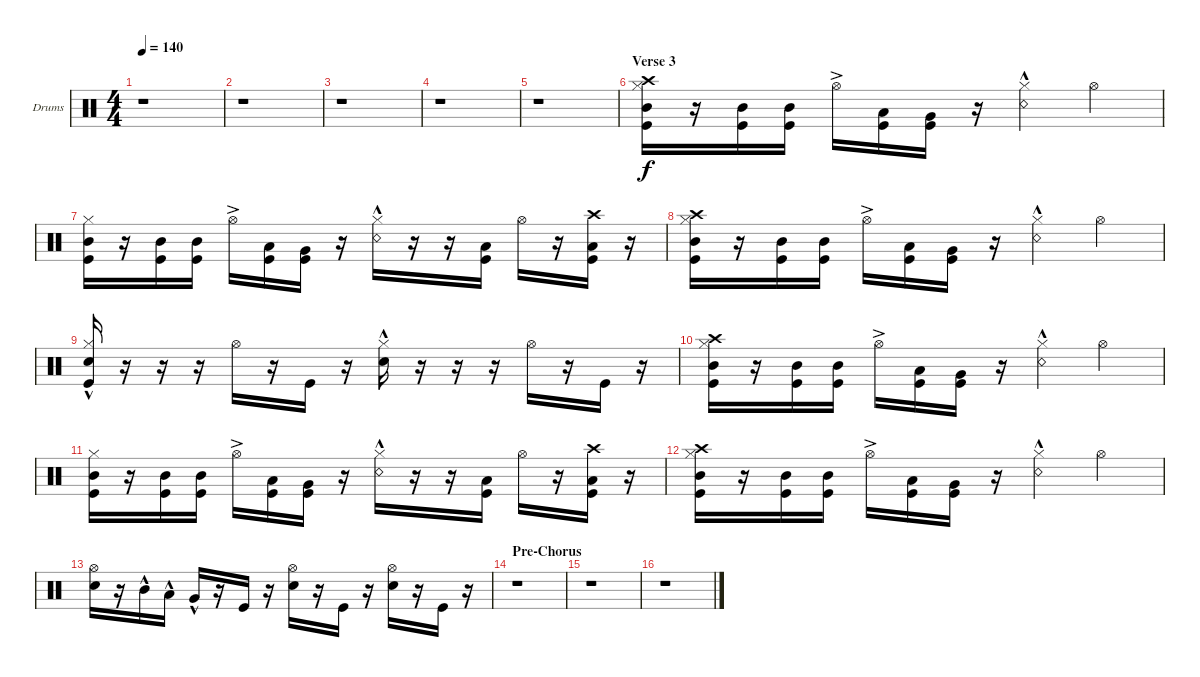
\defaultSystemsLayout 4
\bracketExtendMode groupsimilarinstruments
\firstSystemTrackNameOrientation horizontal
\otherSystemsTrackNameOrientation horizontal
\track ("Effects (Drums) - (Paul)" "Drums") {instrument percussion}
\staff {score}
\articulation defaults
\ts (4 4)
\tempo 140
\clef neutral
\ks c
r.1{dy ff} |
r.1 |
r.1 |
r.1 |
r.1 |
\section ("" "Verse 3")
("Mid Tom (hit)" "Kick (hit)" "Hi-Hat (closed)" "Crash high (hit)").16{dy f} r.16 ("Mid Tom (hit)" "Kick (hit)").16 ("Mid Tom (hit)" "Kick (hit)").16 "Hi-Hat (open)"{ac}.16 ("Low Tom (hit)" "Kick (hit)").16 ("Very Low Tom (hit)" "Kick (hit)").16 r.16 ("Snare (rim shot)"{hac} "Hi-Hat (closed)").4 "Hi-Hat (open)".4 |
("Mid Tom (hit)" "Kick (hit)" "Hi-Hat (closed)").16 r.16 ("Mid Tom (hit)" "Kick (hit)").16 ("Mid Tom (hit)" "Kick (hit)").16 "Hi-Hat (open)"{ac}.16 ("Low Tom (hit)" "Kick (hit)").16 ("Very Low Tom (hit)" "Kick (hit)").16 r.16 ("Snare (rim shot)"{hac} "Hi-Hat (closed)").16 r.16 r.16 ("Kick (hit)" "Low Tom (hit)").16 "Hi-Hat (open)".16 r.16 ("Kick (hit)" "Low Tom (hit)" "Crash high (hit)").16 r.16 |
("Mid Tom (hit)" "Kick (hit)" "Hi-Hat (closed)" "Crash high (hit)").16 r.16 ("Mid Tom (hit)" "Kick (hit)").16 ("Mid Tom (hit)" "Kick (hit)").16 "Hi-Hat (open)"{ac}.16 ("Low Tom (hit)" "Kick (hit)").16 ("Very Low Tom (hit)" "Kick (hit)").16 r.16 ("Snare (rim shot)"{hac} "Hi-Hat (closed)").4 "Hi-Hat (open)".4 |
("Hi-Hat (closed)" "Snare (hit) 2"{hac} "Kick (hit)").16 r.16 r.16 r.16 "Hi-Hat (open)".16 r.16 "Kick (hit)".16 r.16 ("Hi-Hat (closed)" "Snare (hit) 2"{hac}).16 r.16 r.16 r.16 "Hi-Hat (open)".16 r.16 "Kick (hit)".16 r.16 |
("Mid Tom (hit)" "Kick (hit)" "Hi-Hat (closed)" "Crash high (hit)").16 r.16 ("Mid Tom (hit)" "Kick (hit)").16 ("Mid Tom (hit)" "Kick (hit)").16 "Hi-Hat (open)"{ac}.16 ("Low Tom (hit)" "Kick (hit)").16 ("Very Low Tom (hit)" "Kick (hit)").16 r.16 ("Snare (rim shot)"{hac} "Hi-Hat (closed)").4 "Hi-Hat (open)".4 |
("Mid Tom (hit)" "Kick (hit)" "Hi-Hat (closed)").16 r.16 ("Mid Tom (hit)" "Kick (hit)").16 ("Mid Tom (hit)" "Kick (hit)").16 "Hi-Hat (open)"{ac}.16 ("Low Tom (hit)" "Kick (hit)").16 ("Very Low Tom (hit)" "Kick (hit)").16 r.16 ("Snare (rim shot)"{hac} "Hi-Hat (closed)").16 r.16 r.16 ("Kick (hit)" "Low Tom (hit)").16 "Hi-Hat (open)".16 r.16 ("Kick (hit)" "Low Tom (hit)" "Crash high (hit)").16 r.16 |
("Mid Tom (hit)" "Kick (hit)" "Hi-Hat (closed)" "Crash high (hit)").16 r.16 ("Mid Tom (hit)" "Kick (hit)").16 ("Mid Tom (hit)" "Kick (hit)").16 "Hi-Hat (open)"{ac}.16 ("Low Tom (hit)" "Kick (hit)").16 ("Very Low Tom (hit)" "Kick (hit)").16 r.16 ("Snare (rim shot)"{hac} "Hi-Hat (closed)").4 "Hi-Hat (open)".4 |
("Snare (hit) 2" "Hi-Hat (open)").16 r.16 "Mid Tom (hit)"{hac}.16 "Low Tom (hit)"{hac}.16 "Very Low Tom (hit)"{hac}.16 r.16 "Kick (hit)".16 r.16 ("Snare (hit) 2" "Hi-Hat (open)").16 r.16 "Kick (hit)".16 r.16 ("Snare (hit) 2" "Hi-Hat (open)").16 r.16 "Kick (hit)".16 r.16 |
\section ("" "Pre-Chorus")
r.1 |
r.1 |
r.1
